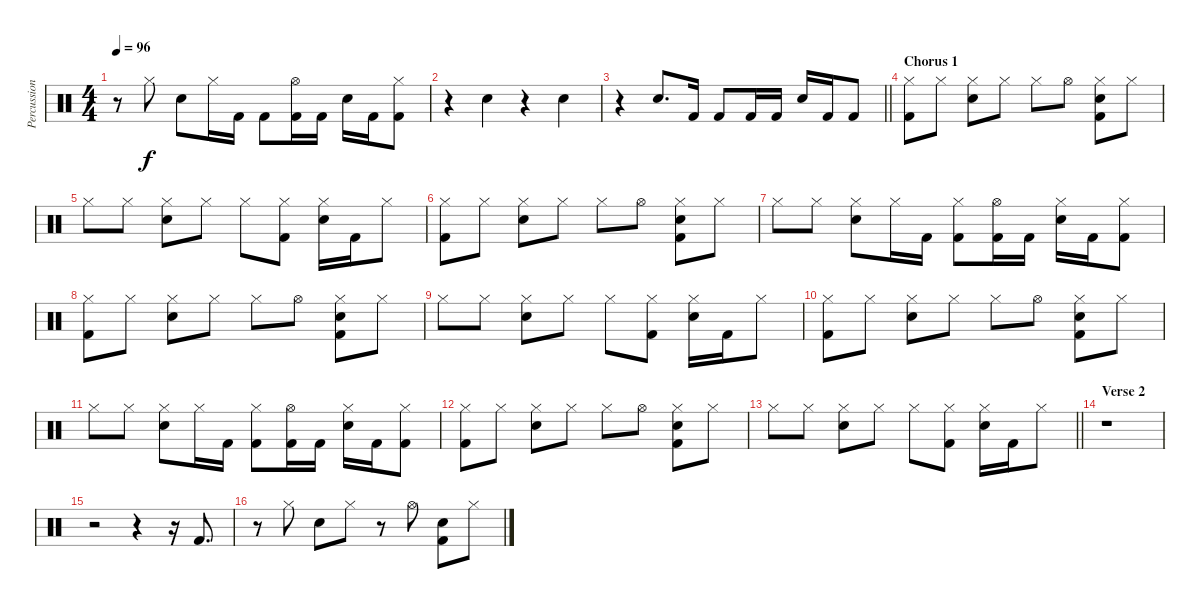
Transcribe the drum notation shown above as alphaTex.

\track ("Percussion" "Percussion") {instrument percussion}
\staff {score}
\articulation defaults
\ts (4 4)
\tempo 96
\clef neutral
\ks c
r.8{dy f} "Hi-Hat (closed)".8 "Snare (hit) 2".8 "Hi-Hat (closed)".16 "Kick (hit) 2".16 "Kick (hit) 2".8 ("Hi-Hat (open)" "Kick (hit) 2").16 "Kick (hit) 2".16 "Snare (hit) 2".16 "Kick (hit) 2".16 ("Hi-Hat (closed)" "Kick (hit) 2").8 |
r.4 "Snare (hit) 2".4 r.4 "Snare (hit) 2".4 |
\barLineRight lightlight
r.4 "Snare (hit) 2".8{d} "Kick (hit) 2".16 "Kick (hit) 2".8 "Kick (hit) 2".16 "Kick (hit) 2".16 "Snare (hit) 2".16 "Kick (hit) 2".16 "Kick (hit) 2".8 |
\section ("" "Chorus 1")
("Hi-Hat (closed)" "Kick (hit) 2").8 "Hi-Hat (closed)".8 ("Hi-Hat (closed)" "Snare (hit) 2").8 "Hi-Hat (closed)".8 "Hi-Hat (closed)".8 "Hi-Hat (open)".8 ("Hi-Hat (closed)" "Snare (hit) 2" "Kick (hit) 2").8 "Hi-Hat (closed)".8 |
"Hi-Hat (closed)".8 "Hi-Hat (closed)".8 ("Hi-Hat (closed)" "Snare (hit) 2").8 "Hi-Hat (closed)".8 "Hi-Hat (closed)".8 ("Hi-Hat (closed)" "Kick (hit) 2").8 ("Hi-Hat (closed)" "Snare (hit) 2").16 "Kick (hit) 2".16 "Hi-Hat (closed)".8 |
("Hi-Hat (closed)" "Kick (hit) 2").8 "Hi-Hat (closed)".8 ("Hi-Hat (closed)" "Snare (hit) 2").8 "Hi-Hat (closed)".8 "Hi-Hat (closed)".8 "Hi-Hat (open)".8 ("Hi-Hat (closed)" "Snare (hit) 2" "Kick (hit) 2").8 "Hi-Hat (closed)".8 |
"Hi-Hat (closed)".8 "Hi-Hat (closed)".8 ("Hi-Hat (closed)" "Snare (hit) 2").8 "Hi-Hat (closed)".16 "Kick (hit) 2".16 ("Hi-Hat (closed)" "Kick (hit) 2").8 ("Hi-Hat (open)" "Kick (hit) 2").16 "Kick (hit) 2".16 ("Hi-Hat (closed)" "Snare (hit) 2").16 "Kick (hit) 2".16 ("Hi-Hat (closed)" "Kick (hit) 2").8 |
("Hi-Hat (closed)" "Kick (hit) 2").8 "Hi-Hat (closed)".8 ("Hi-Hat (closed)" "Snare (hit) 2").8 "Hi-Hat (closed)".8 "Hi-Hat (closed)".8 "Hi-Hat (open)".8 ("Hi-Hat (closed)" "Snare (hit) 2" "Kick (hit) 2").8 "Hi-Hat (closed)".8 |
"Hi-Hat (closed)".8 "Hi-Hat (closed)".8 ("Hi-Hat (closed)" "Snare (hit) 2").8 "Hi-Hat (closed)".8 "Hi-Hat (closed)".8 ("Hi-Hat (closed)" "Kick (hit) 2").8 ("Hi-Hat (closed)" "Snare (hit) 2").16 "Kick (hit) 2".16 "Hi-Hat (closed)".8 |
("Hi-Hat (closed)" "Kick (hit) 2").8 "Hi-Hat (closed)".8 ("Hi-Hat (closed)" "Snare (hit) 2").8 "Hi-Hat (closed)".8 "Hi-Hat (closed)".8 "Hi-Hat (open)".8 ("Hi-Hat (closed)" "Snare (hit) 2" "Kick (hit) 2").8 "Hi-Hat (closed)".8 |
"Hi-Hat (closed)".8 "Hi-Hat (closed)".8 ("Hi-Hat (closed)" "Snare (hit) 2").8 "Hi-Hat (closed)".16 "Kick (hit) 2".16 ("Hi-Hat (closed)" "Kick (hit) 2").8 ("Hi-Hat (open)" "Kick (hit) 2").16 "Kick (hit) 2".16 ("Hi-Hat (closed)" "Snare (hit) 2").16 "Kick (hit) 2".16 ("Hi-Hat (closed)" "Kick (hit) 2").8 |
("Hi-Hat (closed)" "Kick (hit) 2").8 "Hi-Hat (closed)".8 ("Hi-Hat (closed)" "Snare (hit) 2").8 "Hi-Hat (closed)".8 "Hi-Hat (closed)".8 "Hi-Hat (open)".8 ("Hi-Hat (closed)" "Snare (hit) 2" "Kick (hit) 2").8 "Hi-Hat (closed)".8 |
\barLineRight lightlight "Hi-Hat (closed)".8 "Hi-Hat (closed)".8
("Hi-Hat (closed)" "Snare (hit) 2").8 "Hi-Hat (closed)".8 "Hi-Hat (closed)".8 ("Hi-Hat (closed)" "Kick (hit) 2").8 ("Hi-Hat (closed)" "Snare (hit) 2").16 "Kick (hit) 2".16 "Hi-Hat (closed)".8 |
\section ("" "Verse 2")
r.1 |
r.2 r.4 r.16 "Kick (hit) 2".8{d} |
r.8 "Hi-Hat (closed)".8 "Snare (hit) 2".8 "Hi-Hat (closed)".8 r.8 "Hi-Hat (open)".8 ("Snare (hit) 2" "Kick (hit) 2").8 "Hi-Hat (closed)".8
